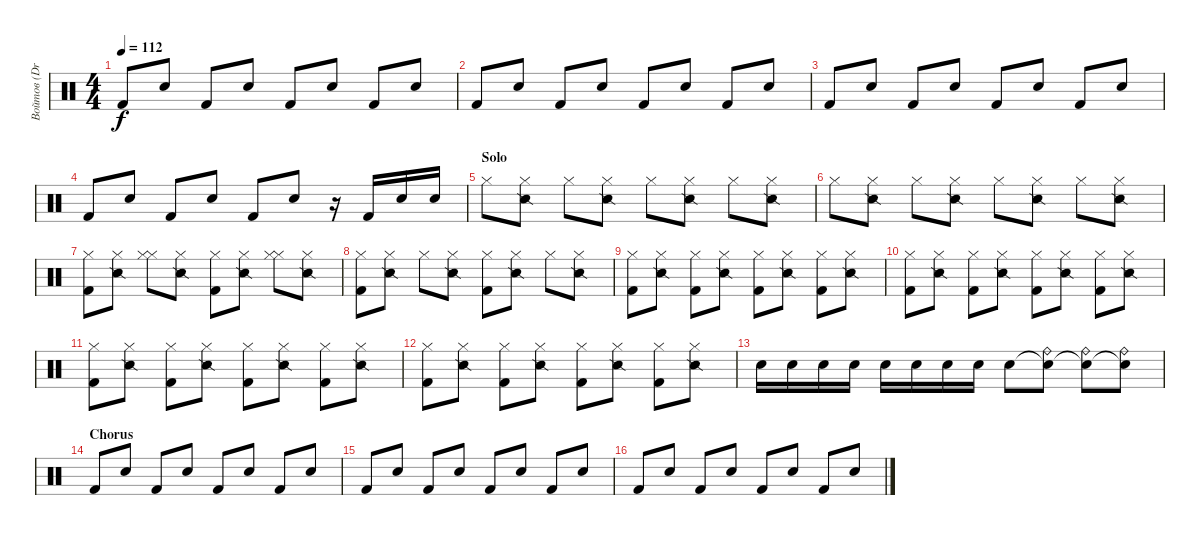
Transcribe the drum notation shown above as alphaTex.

\track ("Войтов (Drums)" "Войтов (Dr") {instrument percussion}
\staff {score}
\articulation defaults
\ts (4 4)
\tempo 112
\clef neutral
\ks c "Kick (hit) 2".8{dy f} "Electric Snare (hit)".8 "Kick (hit) 2".8 "Electric Snare (hit)".8 "Kick (hit) 2".8 "Electric Snare (hit)".8 "Kick (hit) 2".8 "Electric Snare (hit)".8
|
"Kick (hit) 2".8 "Electric Snare (hit)".8 "Kick (hit) 2".8 "Electric Snare (hit)".8 "Kick (hit) 2".8 "Electric Snare (hit)".8 "Kick (hit) 2".8 "Electric Snare (hit)".8 |
"Kick (hit) 2".8 "Electric Snare (hit)".8 "Kick (hit) 2".8 "Electric Snare (hit)".8 "Kick (hit) 2".8 "Electric Snare (hit)".8 "Kick (hit) 2".8 "Electric Snare (hit)".8 |
"Kick (hit) 2".8 "Electric Snare (hit)".8 "Kick (hit) 2".8 "Electric Snare (hit)".8 "Kick (hit) 2".8 "Electric Snare (hit)".8 r.16 "Kick (hit) 2".16 "Electric Snare (hit)".16 "Electric Snare (hit)".16 |
\section ("" "Solo")
"Hi-Hat (closed)".8 ("Snare (side stick) 2" "Hi-Hat (closed)").8 "Hi-Hat (closed)".8 ("Snare (side stick) 2" "Hi-Hat (closed)").8 "Hi-Hat (closed)".8 ("Snare (side stick) 2" "Hi-Hat (closed)").8 "Hi-Hat (closed)".8 ("Snare (side stick) 2" "Hi-Hat (closed)").8 |
"Hi-Hat (closed)".8 ("Snare (side stick) 2" "Hi-Hat (closed)").8 "Hi-Hat (closed)".8 ("Snare (side stick) 2" "Hi-Hat (closed)").8 "Hi-Hat (closed)".8 ("Snare (side stick) 2" "Hi-Hat (closed)").8 "Hi-Hat (closed)".8 ("Snare (side stick) 2" "Hi-Hat (closed)").8 |
("Hi-Hat (closed)" "Kick (hit) 2").8 ("Snare (side stick) 2" "Hi-Hat (closed)").8 ("Hi-Hat (closed)" "Hi-Hat (closed)").8 ("Snare (side stick) 2" "Hi-Hat (closed)").8 ("Hi-Hat (closed)" "Kick (hit) 2").8 ("Snare (side stick) 2" "Hi-Hat (closed)").8 ("Hi-Hat (closed)" "Hi-Hat (closed)").8 ("Snare (side stick) 2" "Hi-Hat (closed)").8 |
("Hi-Hat (closed)" "Kick (hit) 2").8 ("Snare (side stick) 2" "Hi-Hat (closed)").8 "Hi-Hat (closed)".8 ("Snare (side stick) 2" "Hi-Hat (closed)").8 ("Hi-Hat (closed)" "Kick (hit) 2").8 ("Snare (side stick) 2" "Hi-Hat (closed)").8 "Hi-Hat (closed)".8 ("Snare (side stick) 2" "Hi-Hat (closed)").8 |
("Hi-Hat (closed)" "Kick (hit) 2").8 ("Hi-Hat (closed)" "Snare (side stick) 2").8 ("Hi-Hat (closed)" "Kick (hit) 2").8 ("Hi-Hat (closed)" "Snare (side stick) 2").8 ("Hi-Hat (closed)" "Kick (hit) 2").8 ("Hi-Hat (closed)" "Snare (side stick) 2").8 ("Hi-Hat (closed)" "Kick (hit) 2").8 ("Hi-Hat (closed)" "Snare (side stick) 2").8 |
("Hi-Hat (closed)" "Kick (hit) 2").8 ("Hi-Hat (closed)" "Snare (side stick) 2").8 ("Hi-Hat (closed)" "Kick (hit) 2").8 ("Hi-Hat (closed)" "Snare (side stick) 2").8 ("Hi-Hat (closed)" "Kick (hit) 2").8 ("Hi-Hat (closed)" "Snare (side stick) 2").8 ("Hi-Hat (closed)" "Kick (hit) 2").8 ("Hi-Hat (closed)" "Snare (side stick) 2").8 |
("Hi-Hat (closed)" "Kick (hit) 2").8 ("Hi-Hat (closed)" "Snare (side stick) 2").8 ("Hi-Hat (closed)" "Kick (hit) 2").8 ("Hi-Hat (closed)" "Snare (side stick) 2").8 ("Hi-Hat (closed)" "Kick (hit) 2").8 ("Hi-Hat (closed)" "Snare (side stick) 2").8 ("Hi-Hat (closed)" "Kick (hit) 2").8 ("Hi-Hat (closed)" "Snare (side stick) 2").8 |
("Hi-Hat (closed)" "Kick (hit) 2").8 ("Hi-Hat (closed)" "Snare (side stick) 2").8 ("Hi-Hat (closed)" "Kick (hit) 2").8 ("Hi-Hat (closed)" "Snare (side stick) 2").8 ("Hi-Hat (closed)" "Kick (hit) 2").8 ("Hi-Hat (closed)" "Snare (side stick) 2").8 ("Hi-Hat (closed)" "Kick (hit) 2").8 ("Hi-Hat (closed)" "Snare (side stick) 2").8 |
"Electric Snare (hit)".16 "Electric Snare (hit)".16 "Electric Snare (hit)".16 "Electric Snare (hit)".16 "Electric Snare (hit)".16 "Electric Snare (hit)".16 "Electric Snare (hit)".16 "Electric Snare (hit)".16 "Electric Snare (hit)".8 ("Snare (hit)"{t} "Ride (bell)").8 ("Snare (hit)"{t} "Ride (bell)").8 ("Snare (hit)"{t} "Ride (bell)").8 |
\section ("" "Chorus")
"Kick (hit) 2".8 "Electric Snare (hit)".8 "Kick (hit) 2".8 "Electric Snare (hit)".8 "Kick (hit) 2".8 "Electric Snare (hit)".8 "Kick (hit) 2".8 "Electric Snare (hit)".8 |
"Kick (hit) 2".8 "Electric Snare (hit)".8 "Kick (hit) 2".8 "Electric Snare (hit)".8 "Kick (hit) 2".8 "Electric Snare (hit)".8 "Kick (hit) 2".8 "Electric Snare (hit)".8 |
"Kick (hit) 2".8 "Electric Snare (hit)".8 "Kick (hit) 2".8 "Electric Snare (hit)".8 "Kick (hit) 2".8 "Electric Snare (hit)".8 "Kick (hit) 2".8 "Electric Snare (hit)".8
